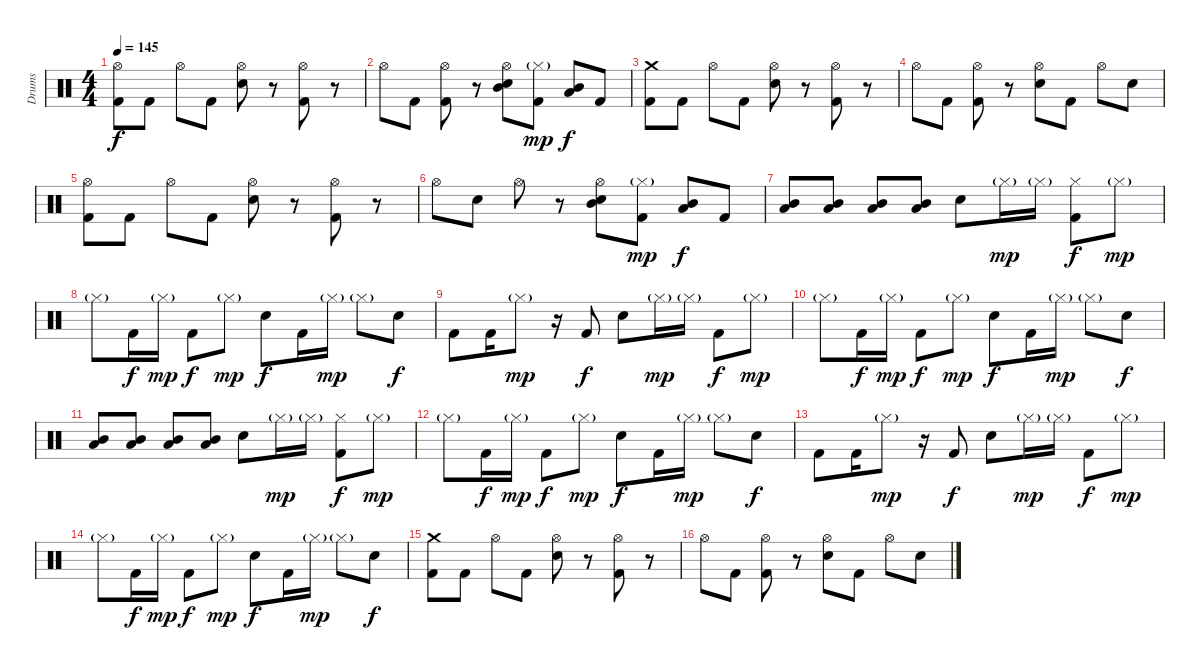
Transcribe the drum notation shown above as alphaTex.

\track ("Drums" "Drums") {instrument percussion}
\staff {score}
\articulation defaults
\ts (4 4)
\tempo 145
\clef neutral
\ks c
("Hi-Hat (open)" "Kick (hit) 2").8{dy f} "Kick (hit) 2".8 "Hi-Hat (open)".8 "Kick (hit) 2".8 ("Hi-Hat (open)" "Electric Snare (hit)").8 r.8 ("Hi-Hat (open)" "Kick (hit) 2").8 r.8 |
"Hi-Hat (open)".8 "Kick (hit) 2".8 ("Hi-Hat (open)" "Kick (hit) 2").8 r.8 ("Hi-Hat (open)" "Electric Snare (hit)" "Mid Tom (hit)").8 ("Hi-Hat (closed)"{g} "Kick (hit) 2").8{dy mp} ("Mid Tom (hit)" "Low Tom (hit)").8{dy f} "Kick (hit) 2".8 |
("Crash medium (hit)" "Kick (hit) 2").8 "Kick (hit) 2".8 "Hi-Hat (open)".8 "Kick (hit) 2".8 ("Hi-Hat (open)" "Electric Snare (hit)").8 r.8 ("Hi-Hat (open)" "Kick (hit) 2").8 r.8 |
"Hi-Hat (open)".8 "Kick (hit) 2".8 ("Hi-Hat (open)" "Kick (hit) 2").8 r.8 ("Hi-Hat (open)" "Electric Snare (hit)").8 "Kick (hit) 2".8 "Hi-Hat (open)".8 "Electric Snare (hit)".8 |
("Hi-Hat (open)" "Kick (hit) 2").8 "Kick (hit) 2".8 "Hi-Hat (open)".8 "Kick (hit) 2".8 ("Hi-Hat (open)" "Electric Snare (hit)").8 r.8 ("Hi-Hat (open)" "Kick (hit) 2").8 r.8 |
"Hi-Hat (open)".8 "Electric Snare (hit)".8 "Hi-Hat (open)".8 r.8 ("Hi-Hat (open)" "Electric Snare (hit)" "Mid Tom (hit)").8 ("Hi-Hat (closed)"{g} "Kick (hit) 2").8{dy mp} ("Mid Tom (hit)" "Low Tom (hit)").8{dy f} "Kick (hit) 2".8 |
("Mid Tom (hit)" "Low Tom (hit)").8 ("Mid Tom (hit)" "Low Tom (hit)").8 ("Mid Tom (hit)" "Low Tom (hit)").8 ("Mid Tom (hit)" "Low Tom (hit)").8 "Electric Snare (hit)".8 "Hi-Hat (closed)"{g}.16{dy mp} "Hi-Hat (closed)"{g}.16 ("Hi-Hat (closed)" "Kick (hit) 2").8{dy f} "Hi-Hat (closed)"{g}.8{dy mp} |
"Hi-Hat (closed)"{g}.8 "Kick (hit) 2".16{dy f} "Hi-Hat (closed)"{g}.16{dy mp} "Kick (hit) 2".8{dy f} "Hi-Hat (closed)"{g}.8{dy mp} "Electric Snare (hit)".8{dy f} "Kick (hit) 2".16 "Hi-Hat (closed)"{g}.16{dy mp} "Hi-Hat (closed)"{g}.8 "Electric Snare (hit)".8{dy f} |
"Kick (hit) 2".8 "Kick (hit) 2".16 "Hi-Hat (closed)"{g}.8{dy mp} r.16 "Kick (hit) 2".8{dy f} "Electric Snare (hit)".8 "Hi-Hat (closed)"{g}.16{dy mp} "Hi-Hat (closed)"{g}.16 "Kick (hit) 2".8{dy f} "Hi-Hat (closed)"{g}.8{dy mp} |
"Hi-Hat (closed)"{g}.8 "Kick (hit) 2".16{dy f} "Hi-Hat (closed)"{g}.16{dy mp} "Kick (hit) 2".8{dy f} "Hi-Hat (closed)"{g}.8{dy mp} "Electric Snare (hit)".8{dy f} "Kick (hit) 2".16 "Hi-Hat (closed)"{g}.16{dy mp} "Hi-Hat (closed)"{g}.8 "Electric Snare (hit)".8{dy f} |
("Mid Tom (hit)" "Low Tom (hit)").8 ("Mid Tom (hit)" "Low Tom (hit)").8 ("Mid Tom (hit)" "Low Tom (hit)").8 ("Mid Tom (hit)" "Low Tom (hit)").8 "Electric Snare (hit)".8 "Hi-Hat (closed)"{g}.16{dy mp} "Hi-Hat (closed)"{g}.16 ("Hi-Hat (closed)" "Kick (hit) 2").8{dy f} "Hi-Hat (closed)"{g}.8{dy mp} |
"Hi-Hat (closed)"{g}.8 "Kick (hit) 2".16{dy f} "Hi-Hat (closed)"{g}.16{dy mp} "Kick (hit) 2".8{dy f} "Hi-Hat (closed)"{g}.8{dy mp} "Electric Snare (hit)".8{dy f} "Kick (hit) 2".16 "Hi-Hat (closed)"{g}.16{dy mp} "Hi-Hat (closed)"{g}.8 "Electric Snare (hit)".8{dy f} |
"Kick (hit) 2".8 "Kick (hit) 2".16 "Hi-Hat (closed)"{g}.8{dy mp} r.16 "Kick (hit) 2".8{dy f} "Electric Snare (hit)".8 "Hi-Hat (closed)"{g}.16{dy mp} "Hi-Hat (closed)"{g}.16 "Kick (hit) 2".8{dy f} "Hi-Hat (closed)"{g}.8{dy mp} |
"Hi-Hat (closed)"{g}.8 "Kick (hit) 2".16{dy f} "Hi-Hat (closed)"{g}.16{dy mp} "Kick (hit) 2".8{dy f} "Hi-Hat (closed)"{g}.8{dy mp} "Electric Snare (hit)".8{dy f} "Kick (hit) 2".16 "Hi-Hat (closed)"{g}.16{dy mp} "Hi-Hat (closed)"{g}.8 "Electric Snare (hit)".8{dy f} |
("Crash medium (hit)" "Kick (hit) 2").8 "Kick (hit) 2".8 "Hi-Hat (open)".8 "Kick (hit) 2".8 ("Hi-Hat (open)" "Electric Snare (hit)").8 r.8 ("Hi-Hat (open)" "Kick (hit) 2").8 r.8 |
"Hi-Hat (open)".8 "Kick (hit) 2".8 ("Hi-Hat (open)" "Kick (hit) 2").8 r.8 ("Hi-Hat (open)" "Electric Snare (hit)").8 "Kick (hit) 2".8 "Hi-Hat (open)".8 "Electric Snare (hit)".8
